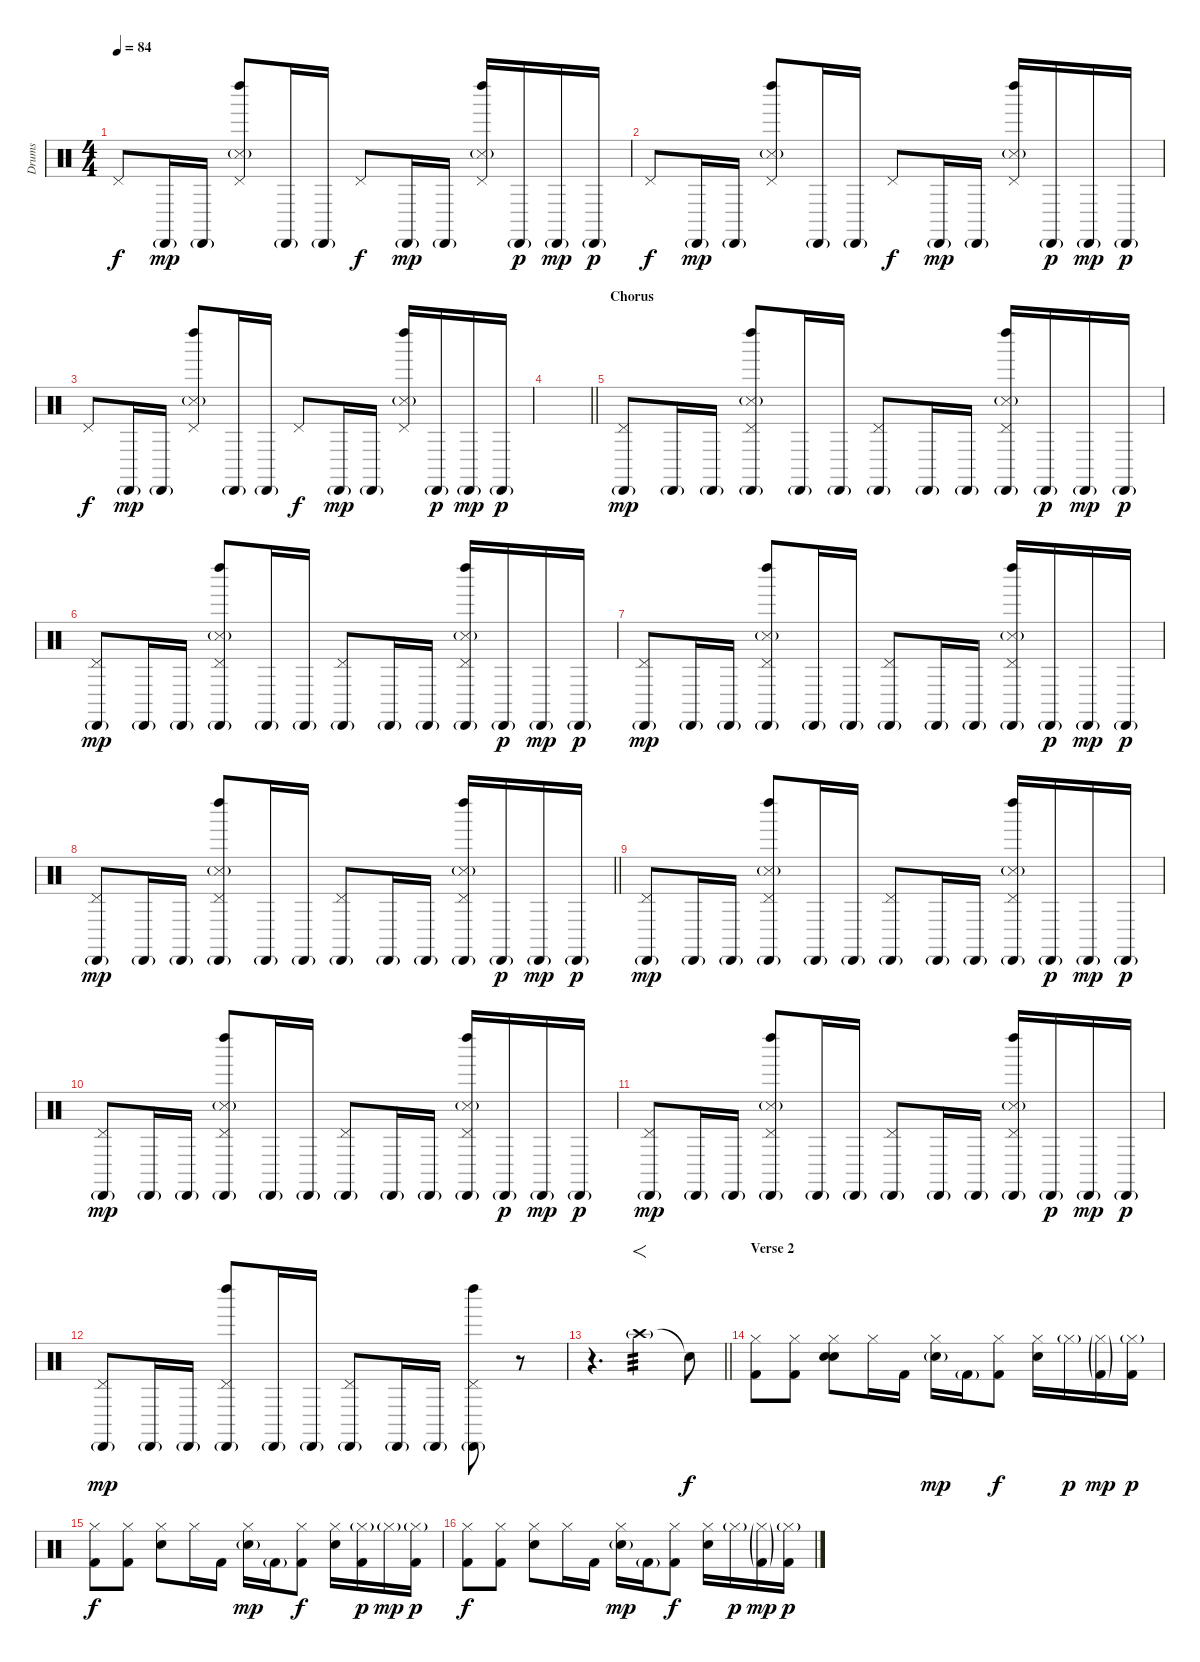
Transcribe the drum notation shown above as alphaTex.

\track ("Drums" "Drums") {instrument percussion}
\staff {score}
\articulation defaults
\ts (4 4)
\tempo 84
\clef neutral
\ks c "Pedal Hi-Hat (hit)".8{dy f} "Cabasa (hit)"{g}.16{dy mp} "Cabasa (hit)"{g}.16
("Left Maraca (hit)" "Pedal Hi-Hat (hit)" "Snare (side stick) 3"{g}).8 "Cabasa (hit)"{g}.16 "Cabasa (hit)"{g}.16 "Pedal Hi-Hat (hit)".8{dy f} "Cabasa (hit)"{g}.16{dy mp} "Cabasa (hit)"{g}.16 ("Left Maraca (hit)" "Pedal Hi-Hat (hit)" "Snare (side stick) 3"{g}).16 "Cabasa (hit)"{g}.16{dy p} "Cabasa (hit)"{g}.16{dy mp} "Cabasa (hit)"{g}.16{dy p} |
"Pedal Hi-Hat (hit)".8{dy f} "Cabasa (hit)"{g}.16{dy mp} "Cabasa (hit)"{g}.16 ("Left Maraca (hit)" "Pedal Hi-Hat (hit)" "Snare (side stick) 3"{g}).8 "Cabasa (hit)"{g}.16 "Cabasa (hit)"{g}.16 "Pedal Hi-Hat (hit)".8{dy f} "Cabasa (hit)"{g}.16{dy mp} "Cabasa (hit)"{g}.16 ("Left Maraca (hit)" "Pedal Hi-Hat (hit)" "Snare (side stick) 3"{g}).16 "Cabasa (hit)"{g}.16{dy p} "Cabasa (hit)"{g}.16{dy mp} "Cabasa (hit)"{g}.16{dy p} |
"Pedal Hi-Hat (hit)".8{dy f} "Cabasa (hit)"{g}.16{dy mp} "Cabasa (hit)"{g}.16 ("Left Maraca (hit)" "Pedal Hi-Hat (hit)" "Snare (side stick) 3"{g}).8 "Cabasa (hit)"{g}.16 "Cabasa (hit)"{g}.16 "Pedal Hi-Hat (hit)".8{dy f} "Cabasa (hit)"{g}.16{dy mp} "Cabasa (hit)"{g}.16 ("Left Maraca (hit)" "Pedal Hi-Hat (hit)" "Snare (side stick) 3"{g}).16 "Cabasa (hit)"{g}.16{dy p} "Cabasa (hit)"{g}.16{dy mp} "Cabasa (hit)"{g}.16{dy p} |
\barLineRight lightlight
|
\section ("" "Chorus")
("Pedal Hi-Hat (hit)" "Cabasa (hit)"{g}).8{dy mp} "Cabasa (hit)"{g}.16 "Cabasa (hit)"{g}.16 ("Left Maraca (hit)" "Pedal Hi-Hat (hit)" "Snare (side stick) 3"{g} "Cabasa (hit)"{g}).8 "Cabasa (hit)"{g}.16 "Cabasa (hit)"{g}.16 ("Pedal Hi-Hat (hit)" "Cabasa (hit)"{g}).8 "Cabasa (hit)"{g}.16 "Cabasa (hit)"{g}.16 ("Left Maraca (hit)" "Pedal Hi-Hat (hit)" "Snare (side stick) 3"{g} "Cabasa (hit)"{g}).16 "Cabasa (hit)"{g}.16{dy p} "Cabasa (hit)"{g}.16{dy mp} "Cabasa (hit)"{g}.16{dy p} |
("Pedal Hi-Hat (hit)" "Cabasa (hit)"{g}).8{dy mp} "Cabasa (hit)"{g}.16 "Cabasa (hit)"{g}.16 ("Left Maraca (hit)" "Pedal Hi-Hat (hit)" "Snare (side stick) 3"{g} "Cabasa (hit)"{g}).8 "Cabasa (hit)"{g}.16 "Cabasa (hit)"{g}.16 ("Pedal Hi-Hat (hit)" "Cabasa (hit)"{g}).8 "Cabasa (hit)"{g}.16 "Cabasa (hit)"{g}.16 ("Left Maraca (hit)" "Pedal Hi-Hat (hit)" "Snare (side stick) 3"{g} "Cabasa (hit)"{g}).16 "Cabasa (hit)"{g}.16{dy p} "Cabasa (hit)"{g}.16{dy mp} "Cabasa (hit)"{g}.16{dy p} |
("Pedal Hi-Hat (hit)" "Cabasa (hit)"{g}).8{dy mp} "Cabasa (hit)"{g}.16 "Cabasa (hit)"{g}.16 ("Left Maraca (hit)" "Pedal Hi-Hat (hit)" "Snare (side stick) 3"{g} "Cabasa (hit)"{g}).8 "Cabasa (hit)"{g}.16 "Cabasa (hit)"{g}.16 ("Pedal Hi-Hat (hit)" "Cabasa (hit)"{g}).8 "Cabasa (hit)"{g}.16 "Cabasa (hit)"{g}.16 ("Left Maraca (hit)" "Pedal Hi-Hat (hit)" "Snare (side stick) 3"{g} "Cabasa (hit)"{g}).16 "Cabasa (hit)"{g}.16{dy p} "Cabasa (hit)"{g}.16{dy mp} "Cabasa (hit)"{g}.16{dy p} |
\barLineRight lightlight
("Pedal Hi-Hat (hit)" "Cabasa (hit)"{g}).8{dy mp} "Cabasa (hit)"{g}.16 "Cabasa (hit)"{g}.16 ("Left Maraca (hit)" "Pedal Hi-Hat (hit)" "Snare (side stick) 3"{g} "Cabasa (hit)"{g}).8 "Cabasa (hit)"{g}.16 "Cabasa (hit)"{g}.16 ("Pedal Hi-Hat (hit)" "Cabasa (hit)"{g}).8 "Cabasa (hit)"{g}.16 "Cabasa (hit)"{g}.16 ("Left Maraca (hit)" "Pedal Hi-Hat (hit)" "Snare (side stick) 3"{g} "Cabasa (hit)"{g}).16 "Cabasa (hit)"{g}.16{dy p} "Cabasa (hit)"{g}.16{dy mp} "Cabasa (hit)"{g}.16{dy p} |
("Pedal Hi-Hat (hit)" "Cabasa (hit)"{g}).8{dy mp} "Cabasa (hit)"{g}.16 "Cabasa (hit)"{g}.16 ("Left Maraca (hit)" "Pedal Hi-Hat (hit)" "Snare (side stick) 3"{g} "Cabasa (hit)"{g}).8 "Cabasa (hit)"{g}.16 "Cabasa (hit)"{g}.16 ("Pedal Hi-Hat (hit)" "Cabasa (hit)"{g}).8 "Cabasa (hit)"{g}.16 "Cabasa (hit)"{g}.16 ("Left Maraca (hit)" "Pedal Hi-Hat (hit)" "Snare (side stick) 3"{g} "Cabasa (hit)"{g}).16 "Cabasa (hit)"{g}.16{dy p} "Cabasa (hit)"{g}.16{dy mp} "Cabasa (hit)"{g}.16{dy p} |
("Pedal Hi-Hat (hit)" "Cabasa (hit)"{g}).8{dy mp} "Cabasa (hit)"{g}.16 "Cabasa (hit)"{g}.16 ("Left Maraca (hit)" "Pedal Hi-Hat (hit)" "Snare (side stick) 3"{g} "Cabasa (hit)"{g}).8 "Cabasa (hit)"{g}.16 "Cabasa (hit)"{g}.16 ("Pedal Hi-Hat (hit)" "Cabasa (hit)"{g}).8 "Cabasa (hit)"{g}.16 "Cabasa (hit)"{g}.16 ("Left Maraca (hit)" "Pedal Hi-Hat (hit)" "Snare (side stick) 3"{g} "Cabasa (hit)"{g}).16 "Cabasa (hit)"{g}.16{dy p} "Cabasa (hit)"{g}.16{dy mp} "Cabasa (hit)"{g}.16{dy p} |
("Pedal Hi-Hat (hit)" "Cabasa (hit)"{g}).8{dy mp} "Cabasa (hit)"{g}.16 "Cabasa (hit)"{g}.16 ("Left Maraca (hit)" "Pedal Hi-Hat (hit)" "Snare (side stick) 3"{g} "Cabasa (hit)"{g}).8 "Cabasa (hit)"{g}.16 "Cabasa (hit)"{g}.16 ("Pedal Hi-Hat (hit)" "Cabasa (hit)"{g}).8 "Cabasa (hit)"{g}.16 "Cabasa (hit)"{g}.16 ("Left Maraca (hit)" "Pedal Hi-Hat (hit)" "Snare (side stick) 3"{g} "Cabasa (hit)"{g}).16 "Cabasa (hit)"{g}.16{dy p} "Cabasa (hit)"{g}.16{dy mp} "Cabasa (hit)"{g}.16{dy p} |
("Pedal Hi-Hat (hit)" "Cabasa (hit)"{g}).8{dy mp} "Cabasa (hit)"{g}.16 "Cabasa (hit)"{g}.16 ("Left Maraca (hit)" "Pedal Hi-Hat (hit)" "Cabasa (hit)"{g}).8 "Cabasa (hit)"{g}.16 "Cabasa (hit)"{g}.16 ("Pedal Hi-Hat (hit)" "Cabasa (hit)"{g}).8 "Cabasa (hit)"{g}.16 "Cabasa (hit)"{g}.16 ("Left Maraca (hit)" "Pedal Hi-Hat (hit)" "Cabasa (hit)"{g}).8 r.8 |
\barLineRight lightlight
r.4{d} "Crash high (hit)"{g}.2{f tp 3} "Snare (hit)"{t}.8{dy f} |
\section ("" "Verse 2")
("Hi-Hat (closed)" "Kick (hit) 2").8 ("Hi-Hat (closed)" "Kick (hit) 2").8 ("Hi-Hat (closed)" "Electric Snare (hit)" "Snare (hit) 2").8 "Hi-Hat (closed)".16 "Kick (hit) 2".16 ("Hi-Hat (closed)" "Electric Snare (hit)"{g}).16{dy mp} "Kick (hit) 2"{g}.16 ("Hi-Hat (closed)" "Kick (hit) 2").8{dy f} ("Hi-Hat (closed)" "Electric Snare (hit)").16 "Hi-Hat (closed)"{g}.16{dy p} ("Hi-Hat (closed)"{g} "Kick (hit) 2"{g}).16{dy mp} ("Hi-Hat (closed)"{g} "Kick (hit) 2").16{dy p} |
("Hi-Hat (closed)" "Kick (hit) 2").8{dy f} ("Hi-Hat (closed)" "Kick (hit) 2").8 ("Hi-Hat (closed)" "Electric Snare (hit)").8 "Hi-Hat (closed)".16 "Kick (hit) 2".16 ("Hi-Hat (closed)" "Electric Snare (hit)"{g}).16{dy mp} "Kick (hit) 2"{g}.16 ("Hi-Hat (closed)" "Kick (hit) 2").8{dy f} ("Hi-Hat (closed)" "Electric Snare (hit)").16 ("Hi-Hat (closed)"{g} "Kick (hit) 2").16{dy p} "Hi-Hat (closed)"{g}.16{dy mp} ("Hi-Hat (closed)"{g} "Kick (hit) 2").16{dy p} |
("Hi-Hat (closed)" "Kick (hit) 2").8{dy f} ("Hi-Hat (closed)" "Kick (hit) 2").8 ("Hi-Hat (closed)" "Electric Snare (hit)").8 "Hi-Hat (closed)".16 "Kick (hit) 2".16 ("Hi-Hat (closed)" "Electric Snare (hit)"{g}).16{dy mp} "Kick (hit) 2"{g}.16 ("Hi-Hat (closed)" "Kick (hit) 2").8{dy f} ("Hi-Hat (closed)" "Electric Snare (hit)").16 "Hi-Hat (closed)"{g}.16{dy p} ("Hi-Hat (closed)"{g} "Kick (hit) 2"{g}).16{dy mp} ("Hi-Hat (closed)"{g} "Kick (hit) 2").16{dy p}
